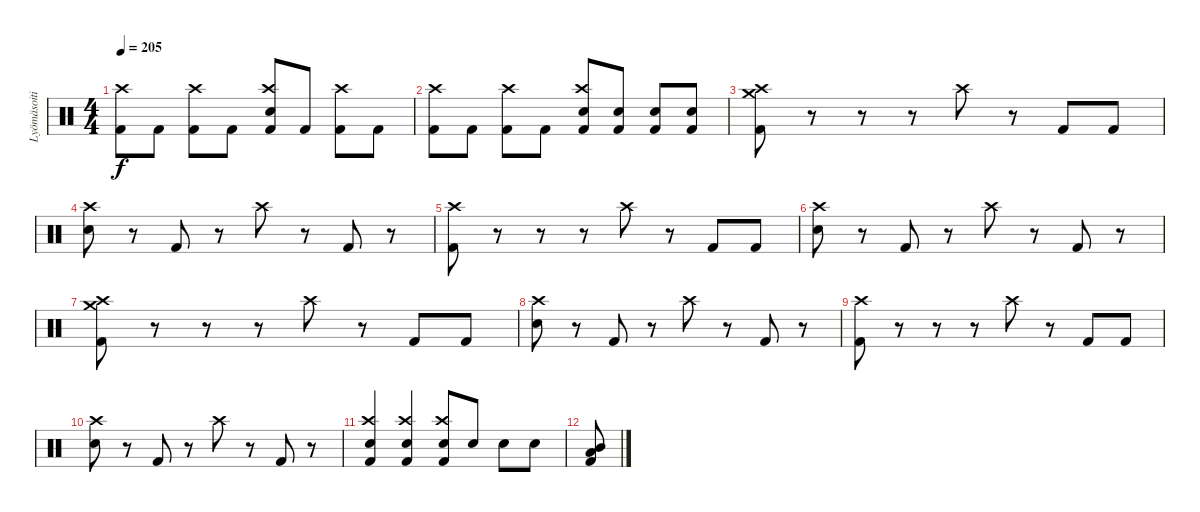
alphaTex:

\track ("Lyömäsoitin" "Lyömäsoiti") {instrument percussion}
\staff {score}
\articulation defaults
\ts (4 4)
\tempo 205
\clef neutral
\ks c
("Kick (hit) 2" "Crash high (hit)").8{dy f} "Kick (hit) 2".8 ("Kick (hit) 2" "Crash high (hit)").8 "Kick (hit) 2".8 ("Kick (hit) 2" "Electric Snare (hit)" "Crash high (hit)").8 "Kick (hit) 2".8 ("Kick (hit) 2" "Crash high (hit)").8 "Kick (hit) 2".8 |
("Kick (hit) 2" "Crash high (hit)").8 "Kick (hit) 2".8 ("Kick (hit) 2" "Crash high (hit)").8 "Kick (hit) 2".8 ("Kick (hit) 2" "Electric Snare (hit)" "Crash high (hit)").8 ("Kick (hit) 2" "Electric Snare (hit)").8 ("Kick (hit) 2" "Electric Snare (hit)").8 ("Kick (hit) 2" "Electric Snare (hit)").8 |
("Kick (hit) 2" "Crash medium (hit)" "Crash high (hit)").8 r.8 r.8 r.8 "Crash high (hit)".8 r.8 "Kick (hit) 2".8 "Kick (hit) 2".8 |
("Electric Snare (hit)" "Crash high (hit)").8 r.8 "Kick (hit) 2".8 r.8 "Crash high (hit)".8 r.8 "Kick (hit) 2".8 r.8 |
("Kick (hit) 2" "Crash high (hit)").8 r.8 r.8 r.8 "Crash high (hit)".8 r.8 "Kick (hit) 2".8 "Kick (hit) 2".8 |
("Electric Snare (hit)" "Crash high (hit)").8 r.8 "Kick (hit) 2".8 r.8 "Crash high (hit)".8 r.8 "Kick (hit) 2".8 r.8 |
("Kick (hit) 2" "Crash medium (hit)" "Crash high (hit)").8 r.8 r.8 r.8 "Crash high (hit)".8 r.8 "Kick (hit) 2".8 "Kick (hit) 2".8 |
("Electric Snare (hit)" "Crash high (hit)").8 r.8 "Kick (hit) 2".8 r.8 "Crash high (hit)".8 r.8 "Kick (hit) 2".8 r.8 |
("Kick (hit) 2" "Crash high (hit)").8 r.8 r.8 r.8 "Crash high (hit)".8 r.8 "Kick (hit) 2".8 "Kick (hit) 2".8 |
("Electric Snare (hit)" "Crash high (hit)").8 r.8 "Kick (hit) 2".8 r.8 "Crash high (hit)".8 r.8 "Kick (hit) 2".8 r.8 |
("Kick (hit) 2" "Electric Snare (hit)" "Crash high (hit)").4 ("Kick (hit) 2" "Electric Snare (hit)" "Crash high (hit)").4 ("Kick (hit) 2" "Electric Snare (hit)" "Crash high (hit)").8 "Electric Snare (hit)".8 "Electric Snare (hit)".8 "Electric Snare (hit)".8 |
("Kick (hit) 2" "Mid Tom (hit)" "Low Tom (hit)").8
